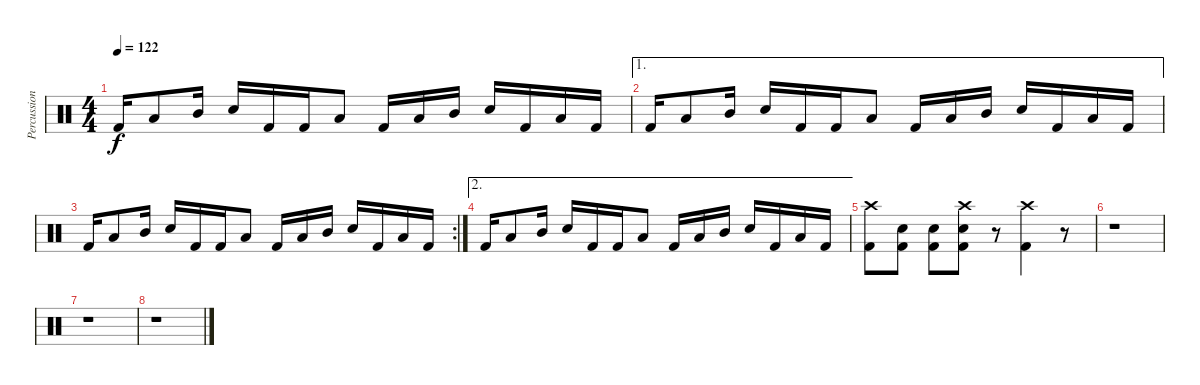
\track ("Percussion" "Percussion") {instrument percussion}
\staff {score}
\articulation defaults
\ts (4 4)
\tempo 122
\clef neutral
\ks c "Kick (hit) 2".16{dy f} "Low Tom (hit)".8 "Mid Tom (hit)".16 "Electric Snare (hit)".16 "Kick (hit) 2".16 "Kick (hit) 2".16 "Low Tom (hit)".8 "Kick (hit) 2".16 "Low Tom (hit)".16 "Mid Tom (hit)".16 "Electric Snare (hit)".16 "Kick (hit) 2".16 "Low Tom (hit)".16 "Kick (hit) 2".16
|
\ae 1 "Kick (hit) 2".16 "Low Tom (hit)".8 "Mid Tom (hit)".16 "Electric Snare (hit)".16 "Kick (hit) 2".16 "Kick (hit) 2".16 "Low Tom (hit)".8 "Kick (hit) 2".16 "Low Tom (hit)".16 "Mid Tom (hit)".16 "Electric Snare (hit)".16 "Kick (hit) 2".16 "Low Tom (hit)".16 "Kick (hit) 2".16
|
\rc 2 "Kick (hit) 2".16 "Low Tom (hit)".8 "Mid Tom (hit)".16 "Electric Snare (hit)".16 "Kick (hit) 2".16 "Kick (hit) 2".16 "Low Tom (hit)".8 "Kick (hit) 2".16 "Low Tom (hit)".16 "Mid Tom (hit)".16 "Electric Snare (hit)".16 "Kick (hit) 2".16 "Low Tom (hit)".16 "Kick (hit) 2".16
|
\ae 2 "Kick (hit) 2".16 "Low Tom (hit)".8 "Mid Tom (hit)".16 "Electric Snare (hit)".16 "Kick (hit) 2".16 "Kick (hit) 2".16 "Low Tom (hit)".8 "Kick (hit) 2".16 "Low Tom (hit)".16 "Mid Tom (hit)".16 "Electric Snare (hit)".16 "Kick (hit) 2".16 "Low Tom (hit)".16 "Kick (hit) 2".16
|
("Crash high (hit)" "Kick (hit) 2").8 ("Electric Snare (hit)" "Kick (hit) 2").8 ("Electric Snare (hit)" "Kick (hit) 2").8 ("Crash high (hit)" "Electric Snare (hit)" "Kick (hit) 2").8 r.8 ("Crash high (hit)" "Kick (hit) 2").4 r.8 |
r.1 |
r.1 |
r.1
